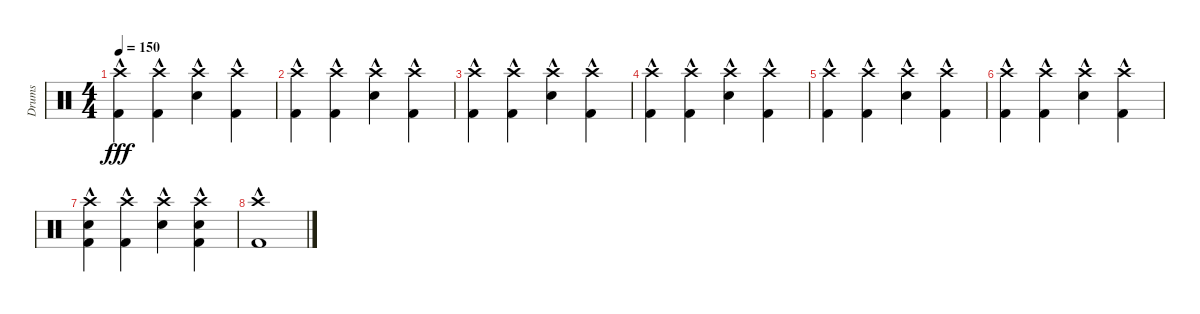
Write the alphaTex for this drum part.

\track ("Drums" "Drums") {instrument percussion}
\staff {score}
\articulation defaults
\ts (4 4)
\tempo 150
\clef neutral
\ks c
("Crash high (hit)" "Kick (hit) 2"{hac}).4{dy fff} ("Crash high (hit)" "Kick (hit) 2"{hac}).4 ("Crash high (hit)" "Electric Snare (hit)"{hac}).4 ("Crash high (hit)" "Kick (hit) 2"{hac}).4 |
("Crash high (hit)" "Kick (hit) 2"{hac}).4 ("Crash high (hit)" "Kick (hit) 2"{hac}).4 ("Crash high (hit)" "Electric Snare (hit)"{hac}).4 ("Crash high (hit)" "Kick (hit) 2"{hac}).4 |
("Crash high (hit)" "Kick (hit) 2"{hac}).4 ("Crash high (hit)" "Kick (hit) 2"{hac}).4 ("Crash high (hit)" "Electric Snare (hit)"{hac}).4 ("Crash high (hit)" "Kick (hit) 2"{hac}).4 |
("Crash high (hit)" "Kick (hit) 2"{hac}).4 ("Crash high (hit)" "Kick (hit) 2"{hac}).4 ("Crash high (hit)" "Electric Snare (hit)"{hac}).4 ("Crash high (hit)" "Kick (hit) 2"{hac}).4 |
("Crash high (hit)" "Kick (hit) 2"{hac}).4 ("Crash high (hit)" "Kick (hit) 2"{hac}).4 ("Crash high (hit)" "Electric Snare (hit)"{hac}).4 ("Crash high (hit)" "Kick (hit) 2"{hac}).4 |
("Crash high (hit)" "Kick (hit) 2"{hac}).4 ("Crash high (hit)" "Kick (hit) 2"{hac}).4 ("Crash high (hit)" "Electric Snare (hit)"{hac}).4 ("Crash high (hit)" "Kick (hit) 2"{hac}).4 |
("Crash high (hit)" "Electric Snare (hit)" "Kick (hit) 2"{hac}).4 ("Crash high (hit)" "Kick (hit) 2"{hac}).4 ("Crash high (hit)" "Electric Snare (hit)"{hac}).4 ("Crash high (hit)" "Electric Snare (hit)" "Kick (hit) 2"{hac}).4 |
("Crash high (hit)" "Kick (hit) 2"{hac}).1
